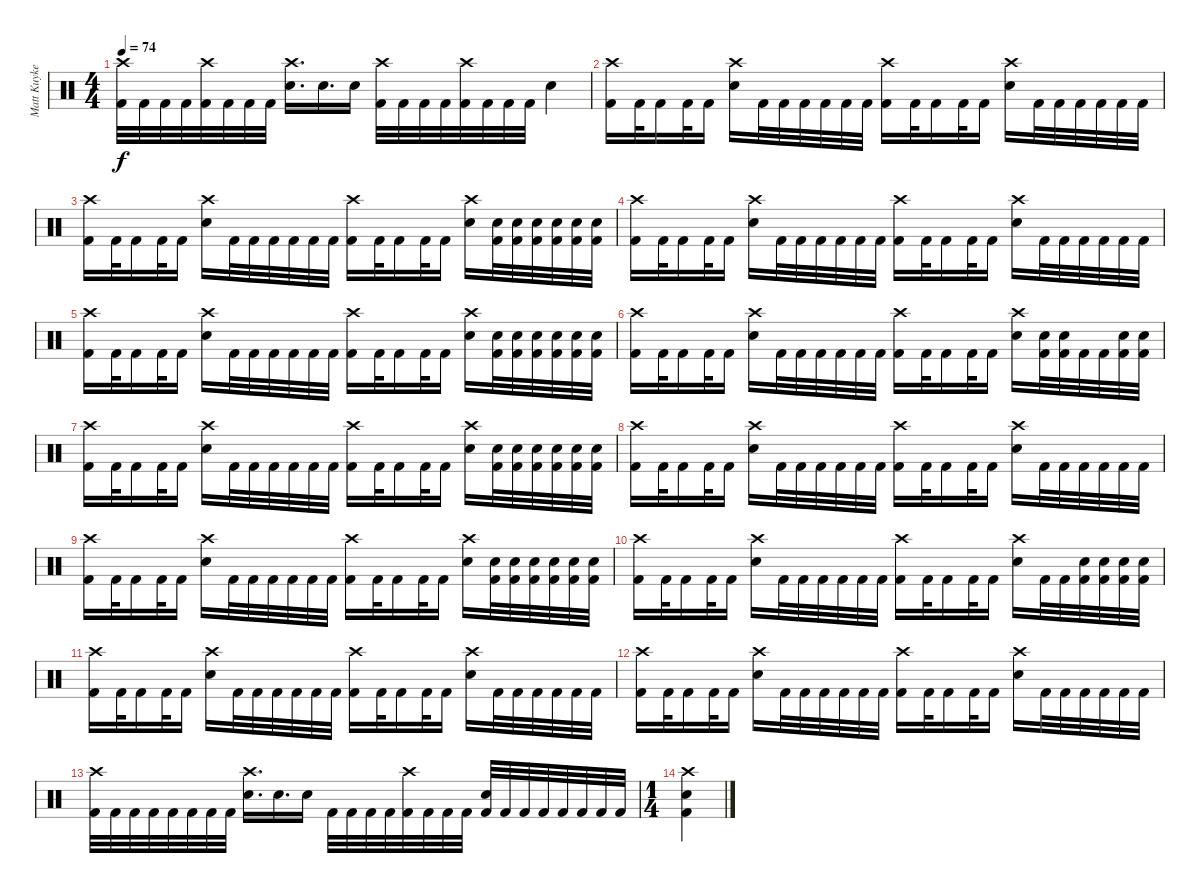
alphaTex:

\track ("Matt Kuykendall (Drums)" "Matt Kuyke") {instrument percussion}
\staff {score}
\articulation defaults
\ts (4 4)
\tempo 74
\clef neutral
\ks c
("Crash high (hit)" "Kick (hit) 2").32{dy f} "Kick (hit) 2".32 "Kick (hit) 2".32 "Kick (hit) 2".32 ("Crash high (hit)" "Kick (hit) 2").32 "Kick (hit) 2".32 "Kick (hit) 2".32 "Kick (hit) 2".32 ("Crash high (hit)" "Snare (hit) 2").16{d} "Snare (hit) 2".16{d} "Snare (hit) 2".16 ("Crash high (hit)" "Kick (hit) 2").32 "Kick (hit) 2".32 "Kick (hit) 2".32 "Kick (hit) 2".32 ("Crash high (hit)" "Kick (hit) 2").32 "Kick (hit) 2".32 "Kick (hit) 2".32 "Kick (hit) 2".32 "Snare (hit) 2".4 |
("Crash high (hit)" "Kick (hit) 2").16 "Kick (hit) 2".32 "Kick (hit) 2".16 "Kick (hit) 2".32 "Kick (hit) 2".16 ("Crash high (hit)" "Snare (hit) 2").16 "Kick (hit) 2".32 "Kick (hit) 2".32 "Kick (hit) 2".32 "Kick (hit) 2".32 "Kick (hit) 2".32 "Kick (hit) 2".32 ("Crash high (hit)" "Kick (hit) 2").16 "Kick (hit) 2".32 "Kick (hit) 2".16 "Kick (hit) 2".32 "Kick (hit) 2".16 ("Crash high (hit)" "Snare (hit) 2").16 "Kick (hit) 2".32 "Kick (hit) 2".32 "Kick (hit) 2".32 "Kick (hit) 2".32 "Kick (hit) 2".32 "Kick (hit) 2".32 |
("Crash high (hit)" "Kick (hit) 2").16 "Kick (hit) 2".32 "Kick (hit) 2".16 "Kick (hit) 2".32 "Kick (hit) 2".16 ("Crash high (hit)" "Snare (hit) 2").16 "Kick (hit) 2".32 "Kick (hit) 2".32 "Kick (hit) 2".32 "Kick (hit) 2".32 "Kick (hit) 2".32 "Kick (hit) 2".32 ("Crash high (hit)" "Kick (hit) 2").16 "Kick (hit) 2".32 "Kick (hit) 2".16 "Kick (hit) 2".32 "Kick (hit) 2".16 ("Crash high (hit)" "Snare (hit) 2").16 ("Snare (hit) 2" "Kick (hit) 2").32 ("Snare (hit) 2" "Kick (hit) 2").32 ("Snare (hit) 2" "Kick (hit) 2").32 ("Snare (hit) 2" "Kick (hit) 2").32 ("Snare (hit) 2" "Kick (hit) 2").32 ("Snare (hit) 2" "Kick (hit) 2").32 |
("Crash high (hit)" "Kick (hit) 2").16 "Kick (hit) 2".32 "Kick (hit) 2".16 "Kick (hit) 2".32 "Kick (hit) 2".16 ("Crash high (hit)" "Snare (hit) 2").16 "Kick (hit) 2".32 "Kick (hit) 2".32 "Kick (hit) 2".32 "Kick (hit) 2".32 "Kick (hit) 2".32 "Kick (hit) 2".32 ("Crash high (hit)" "Kick (hit) 2").16 "Kick (hit) 2".32 "Kick (hit) 2".16 "Kick (hit) 2".32 "Kick (hit) 2".16 ("Crash high (hit)" "Snare (hit) 2").16 "Kick (hit) 2".32 "Kick (hit) 2".32 "Kick (hit) 2".32 "Kick (hit) 2".32 "Kick (hit) 2".32 "Kick (hit) 2".32 |
("Crash high (hit)" "Kick (hit) 2").16 "Kick (hit) 2".32 "Kick (hit) 2".16 "Kick (hit) 2".32 "Kick (hit) 2".16 ("Crash high (hit)" "Snare (hit) 2").16 "Kick (hit) 2".32 "Kick (hit) 2".32 "Kick (hit) 2".32 "Kick (hit) 2".32 "Kick (hit) 2".32 "Kick (hit) 2".32 ("Crash high (hit)" "Kick (hit) 2").16 "Kick (hit) 2".32 "Kick (hit) 2".16 "Kick (hit) 2".32 "Kick (hit) 2".16 ("Crash high (hit)" "Snare (hit) 2").16 ("Snare (hit) 2" "Kick (hit) 2").32 ("Snare (hit) 2" "Kick (hit) 2").32 ("Snare (hit) 2" "Kick (hit) 2").32 ("Snare (hit) 2" "Kick (hit) 2").32 ("Snare (hit) 2" "Kick (hit) 2").32 ("Snare (hit) 2" "Kick (hit) 2").32 |
("Crash high (hit)" "Kick (hit) 2").16 "Kick (hit) 2".32 "Kick (hit) 2".16 "Kick (hit) 2".32 "Kick (hit) 2".16 ("Crash high (hit)" "Snare (hit) 2").16 "Kick (hit) 2".32 "Kick (hit) 2".32 "Kick (hit) 2".32 "Kick (hit) 2".32 "Kick (hit) 2".32 "Kick (hit) 2".32 ("Crash high (hit)" "Kick (hit) 2").16 "Kick (hit) 2".32 "Kick (hit) 2".16 "Kick (hit) 2".32 "Kick (hit) 2".16 ("Crash high (hit)" "Snare (hit) 2").16 ("Snare (hit) 2" "Kick (hit) 2").32 ("Snare (hit) 2" "Kick (hit) 2").32 "Kick (hit) 2".32 "Kick (hit) 2".32 ("Snare (hit) 2" "Kick (hit) 2").32 ("Snare (hit) 2" "Kick (hit) 2").32 |
("Crash high (hit)" "Kick (hit) 2").16 "Kick (hit) 2".32 "Kick (hit) 2".16 "Kick (hit) 2".32 "Kick (hit) 2".16 ("Crash high (hit)" "Snare (hit) 2").16 "Kick (hit) 2".32 "Kick (hit) 2".32 "Kick (hit) 2".32 "Kick (hit) 2".32 "Kick (hit) 2".32 "Kick (hit) 2".32 ("Crash high (hit)" "Kick (hit) 2").16 "Kick (hit) 2".32 "Kick (hit) 2".16 "Kick (hit) 2".32 "Kick (hit) 2".16 ("Crash high (hit)" "Snare (hit) 2").16 ("Snare (hit) 2" "Kick (hit) 2").32 ("Snare (hit) 2" "Kick (hit) 2").32 ("Snare (hit) 2" "Kick (hit) 2").32 ("Snare (hit) 2" "Kick (hit) 2").32 ("Snare (hit) 2" "Kick (hit) 2").32 ("Snare (hit) 2" "Kick (hit) 2").32 |
("Crash high (hit)" "Kick (hit) 2").16 "Kick (hit) 2".32 "Kick (hit) 2".16 "Kick (hit) 2".32 "Kick (hit) 2".16 ("Crash high (hit)" "Snare (hit) 2").16 "Kick (hit) 2".32 "Kick (hit) 2".32 "Kick (hit) 2".32 "Kick (hit) 2".32 "Kick (hit) 2".32 "Kick (hit) 2".32 ("Crash high (hit)" "Kick (hit) 2").16 "Kick (hit) 2".32 "Kick (hit) 2".16 "Kick (hit) 2".32 "Kick (hit) 2".16 ("Crash high (hit)" "Snare (hit) 2").16 "Kick (hit) 2".32 "Kick (hit) 2".32 "Kick (hit) 2".32 "Kick (hit) 2".32 "Kick (hit) 2".32 "Kick (hit) 2".32 |
("Crash high (hit)" "Kick (hit) 2").16 "Kick (hit) 2".32 "Kick (hit) 2".16 "Kick (hit) 2".32 "Kick (hit) 2".16 ("Crash high (hit)" "Snare (hit) 2").16 "Kick (hit) 2".32 "Kick (hit) 2".32 "Kick (hit) 2".32 "Kick (hit) 2".32 "Kick (hit) 2".32 "Kick (hit) 2".32 ("Crash high (hit)" "Kick (hit) 2").16 "Kick (hit) 2".32 "Kick (hit) 2".16 "Kick (hit) 2".32 "Kick (hit) 2".16 ("Crash high (hit)" "Snare (hit) 2").16 ("Snare (hit) 2" "Kick (hit) 2").32 ("Snare (hit) 2" "Kick (hit) 2").32 ("Snare (hit) 2" "Kick (hit) 2").32 ("Snare (hit) 2" "Kick (hit) 2").32 ("Snare (hit) 2" "Kick (hit) 2").32 ("Snare (hit) 2" "Kick (hit) 2").32 |
("Crash high (hit)" "Kick (hit) 2").16 "Kick (hit) 2".32 "Kick (hit) 2".16 "Kick (hit) 2".32 "Kick (hit) 2".16 ("Crash high (hit)" "Snare (hit) 2").16 "Kick (hit) 2".32 "Kick (hit) 2".32 "Kick (hit) 2".32 "Kick (hit) 2".32 "Kick (hit) 2".32 "Kick (hit) 2".32 ("Crash high (hit)" "Kick (hit) 2").16 "Kick (hit) 2".32 "Kick (hit) 2".16 "Kick (hit) 2".32 "Kick (hit) 2".16 ("Crash high (hit)" "Snare (hit) 2").16 "Kick (hit) 2".32 "Kick (hit) 2".32 ("Snare (hit) 2" "Kick (hit) 2").32 ("Snare (hit) 2" "Kick (hit) 2").32 ("Snare (hit) 2" "Kick (hit) 2").32 ("Snare (hit) 2" "Kick (hit) 2").32 |
("Crash high (hit)" "Kick (hit) 2").16 "Kick (hit) 2".32 "Kick (hit) 2".16 "Kick (hit) 2".32 "Kick (hit) 2".16 ("Crash high (hit)" "Snare (hit) 2").16 "Kick (hit) 2".32 "Kick (hit) 2".32 "Kick (hit) 2".32 "Kick (hit) 2".32 "Kick (hit) 2".32 "Kick (hit) 2".32 ("Crash high (hit)" "Kick (hit) 2").16 "Kick (hit) 2".32 "Kick (hit) 2".16 "Kick (hit) 2".32 "Kick (hit) 2".16 ("Crash high (hit)" "Snare (hit) 2").16 "Kick (hit) 2".32 "Kick (hit) 2".32 "Kick (hit) 2".32 "Kick (hit) 2".32 "Kick (hit) 2".32 "Kick (hit) 2".32 |
("Crash high (hit)" "Kick (hit) 2").16 "Kick (hit) 2".32 "Kick (hit) 2".16 "Kick (hit) 2".32 "Kick (hit) 2".16 ("Crash high (hit)" "Snare (hit) 2").16 "Kick (hit) 2".32 "Kick (hit) 2".32 "Kick (hit) 2".32 "Kick (hit) 2".32 "Kick (hit) 2".32 "Kick (hit) 2".32 ("Crash high (hit)" "Kick (hit) 2").16 "Kick (hit) 2".32 "Kick (hit) 2".16 "Kick (hit) 2".32 "Kick (hit) 2".16 ("Crash high (hit)" "Snare (hit) 2").16 "Kick (hit) 2".32 "Kick (hit) 2".32 "Kick (hit) 2".32 "Kick (hit) 2".32 "Kick (hit) 2".32 "Kick (hit) 2".32 |
("Crash high (hit)" "Kick (hit) 2").32 "Kick (hit) 2".32 "Kick (hit) 2".32 "Kick (hit) 2".32 "Kick (hit) 2".32 "Kick (hit) 2".32 "Kick (hit) 2".32 "Kick (hit) 2".32 ("Crash high (hit)" "Snare (hit) 2").16{d} "Snare (hit) 2".16{d} "Snare (hit) 2".16 "Kick (hit) 2".32 "Kick (hit) 2".32 "Kick (hit) 2".32 "Kick (hit) 2".32 ("Crash high (hit)" "Kick (hit) 2").32 "Kick (hit) 2".32 "Kick (hit) 2".32 "Kick (hit) 2".32 ("Snare (hit) 2" "Kick (hit) 2").32 "Kick (hit) 2".32 "Kick (hit) 2".32 "Kick (hit) 2".32 "Kick (hit) 2".32 "Kick (hit) 2".32 "Kick (hit) 2".32 "Kick (hit) 2".32 |
\ts (1 4)
("Crash high (hit)" "Snare (hit) 2" "Kick (hit) 2").4
